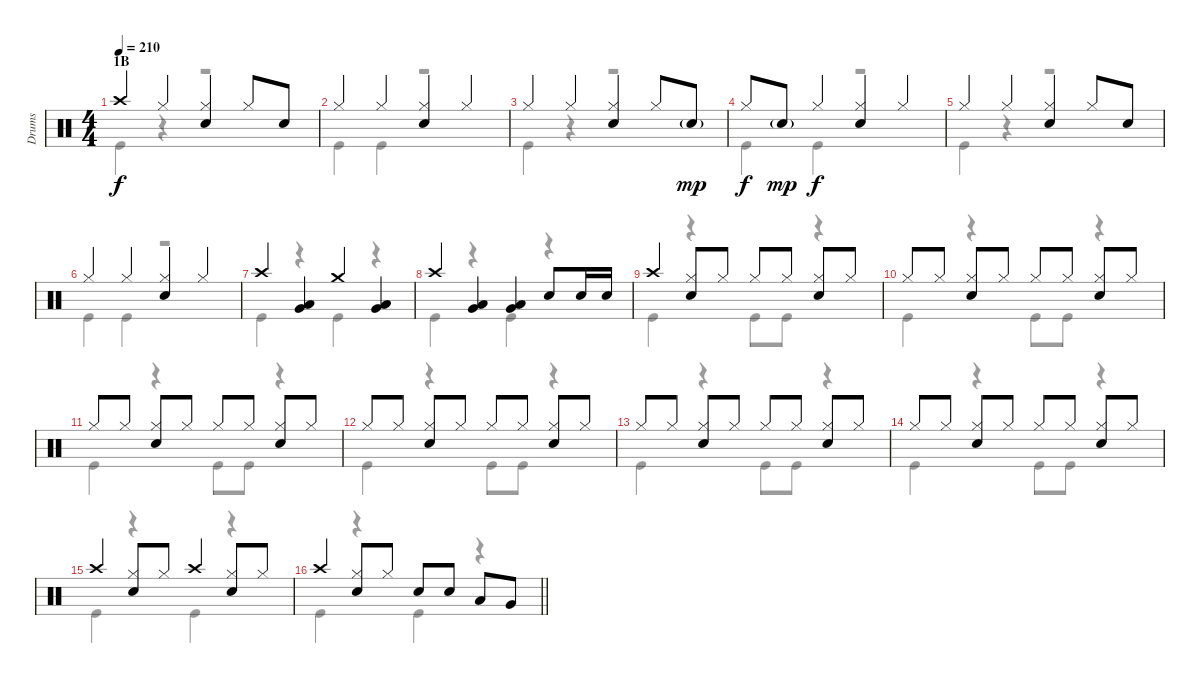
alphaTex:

\track ("Drums" "Drums") {instrument percussion}
\staff {score}
\articulation defaults
\voice
\ts (4 4)
\section ("" "1B")
\tempo 210
\clef neutral
\ks c "Crash high (hit)".4{dy f} "Hi-Hat (closed)".4
("Hi-Hat (closed)" "Snare (hit) 2").4 "Hi-Hat (closed)".8 "Snare (hit) 2".8 |
"Hi-Hat (closed)".4 "Hi-Hat (closed)".4 ("Hi-Hat (closed)" "Snare (hit) 2").4 "Hi-Hat (closed)".4 |
"Hi-Hat (closed)".4 "Hi-Hat (closed)".4 ("Hi-Hat (closed)" "Snare (hit) 2").4 "Hi-Hat (closed)".8 "Snare (hit) 2"{g}.8{dy mp} |
"Hi-Hat (closed)".8{dy f} "Snare (hit) 2"{g}.8{dy mp} "Hi-Hat (closed)".4{dy f} ("Hi-Hat (closed)" "Snare (hit) 2").4 "Hi-Hat (closed)".4 |
"Hi-Hat (closed)".4 "Hi-Hat (closed)".4 ("Hi-Hat (closed)" "Snare (hit) 2").4 "Hi-Hat (closed)".8 "Snare (hit) 2".8 |
"Hi-Hat (closed)".4 "Hi-Hat (closed)".4 ("Hi-Hat (closed)" "Snare (hit) 2").4 "Hi-Hat (closed)".4 |
"Crash high (hit)".4 ("Low Tom (hit)" "Very Low Tom (hit)").4 "Crash medium (hit)".4 ("Low Tom (hit)" "Very Low Tom (hit)").4 |
"Crash high (hit)".4 ("Low Tom (hit)" "Very Low Tom (hit)").4 ("Low Tom (hit)" "Very Low Tom (hit)").4 "Snare (hit) 2".8 "Snare (hit) 2".16 "Snare (hit) 2".16 |
"Crash high (hit)".4 ("Hi-Hat (closed)" "Snare (hit) 2").8 "Hi-Hat (closed)".8 "Hi-Hat (closed)".8 "Hi-Hat (closed)".8 ("Hi-Hat (closed)" "Snare (hit) 2").8 "Hi-Hat (closed)".8 |
"Hi-Hat (closed)".8 "Hi-Hat (closed)".8 ("Hi-Hat (closed)" "Snare (hit) 2").8 "Hi-Hat (closed)".8 "Hi-Hat (closed)".8 "Hi-Hat (closed)".8 ("Hi-Hat (closed)" "Snare (hit) 2").8 "Hi-Hat (closed)".8 |
"Hi-Hat (closed)".8 "Hi-Hat (closed)".8 ("Hi-Hat (closed)" "Snare (hit) 2").8 "Hi-Hat (closed)".8 "Hi-Hat (closed)".8 "Hi-Hat (closed)".8 ("Hi-Hat (closed)" "Snare (hit) 2").8 "Hi-Hat (closed)".8 |
"Hi-Hat (closed)".8 "Hi-Hat (closed)".8 ("Hi-Hat (closed)" "Snare (hit) 2").8 "Hi-Hat (closed)".8 "Hi-Hat (closed)".8 "Hi-Hat (closed)".8 ("Hi-Hat (closed)" "Snare (hit) 2").8 "Hi-Hat (closed)".8 |
"Hi-Hat (closed)".8 "Hi-Hat (closed)".8 ("Hi-Hat (closed)" "Snare (hit) 2").8 "Hi-Hat (closed)".8 "Hi-Hat (closed)".8 "Hi-Hat (closed)".8 ("Hi-Hat (closed)" "Snare (hit) 2").8 "Hi-Hat (closed)".8 |
"Hi-Hat (closed)".8 "Hi-Hat (closed)".8 ("Hi-Hat (closed)" "Snare (hit) 2").8 "Hi-Hat (closed)".8 "Hi-Hat (closed)".8 "Hi-Hat (closed)".8 ("Hi-Hat (closed)" "Snare (hit) 2").8 "Hi-Hat (closed)".8 |
"Crash high (hit)".4 ("Hi-Hat (closed)" "Snare (hit) 2").8 "Hi-Hat (closed)".8 "Crash high (hit)".4 ("Hi-Hat (closed)" "Snare (hit) 2").8 "Hi-Hat (closed)".8 |
\barLineRight lightlight "Crash high (hit)".4
("Hi-Hat (closed)" "Snare (hit) 2").8 "Hi-Hat (closed)".8 "Snare (hit) 2".8 "Snare (hit) 2".8 "Low Tom (hit)".8 "Very Low Tom (hit)".8
\voice
\clef neutral
\ottava regular
\simile none
\ks c "Kick (hit)".4{dy f}
r.4 r.2 |
"Kick (hit)".4 "Kick (hit)".4 r.2 |
"Kick (hit)".4 r.4 r.2 |
"Kick (hit)".4 "Kick (hit)".4 r.2 |
"Kick (hit)".4 r.4 r.2 |
"Kick (hit)".4 "Kick (hit)".4 r.2 |
"Kick (hit)".4 r.4 "Kick (hit)".4 r.4 |
"Kick (hit)".4 r.4 "Kick (hit)".4 r.4 |
"Kick (hit)".4 r.4 "Kick (hit)".8 "Kick (hit)".8 r.4 |
"Kick (hit)".4 r.4 "Kick (hit)".8 "Kick (hit)".8 r.4 |
"Kick (hit)".4 r.4 "Kick (hit)".8 "Kick (hit)".8 r.4 |
"Kick (hit)".4 r.4 "Kick (hit)".8 "Kick (hit)".8 r.4 |
"Kick (hit)".4 r.4 "Kick (hit)".8 "Kick (hit)".8 r.4 |
"Kick (hit)".4 r.4 "Kick (hit)".8 "Kick (hit)".8 r.4 |
"Kick (hit)".4 r.4 "Kick (hit)".4 r.4 |
\barLineRight lightlight "Kick (hit)".4
r.4 "Kick (hit)".4 r.4
